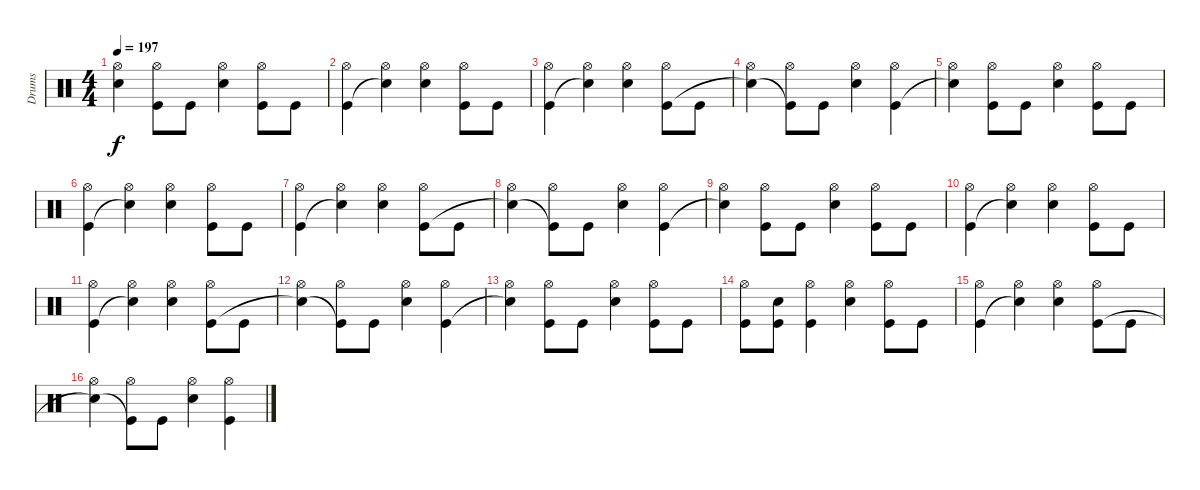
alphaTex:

\track ("Drums" "Drums") {instrument percussion}
\staff {score}
\articulation defaults
\ts (4 4)
\tempo 197
\clef neutral
\ks c
("Hi-Hat (open)" "Snare (hit)"{t}).4{dy f} ("Hi-Hat (open)" "Kick (hit)").8 "Kick (hit)".8 ("Hi-Hat (open)" "Snare (hit) 2").4 ("Hi-Hat (open)" "Kick (hit)").8 "Kick (hit)".8 |
("Hi-Hat (open)" "Kick (hit)").4 ("Hi-Hat (open)" "Snare (hit)"{t}).4 ("Hi-Hat (open)" "Snare (hit) 2").4 ("Hi-Hat (open)" "Kick (hit)").8 "Kick (hit)".8 |
("Hi-Hat (open)" "Kick (hit)").4 ("Hi-Hat (open)" "Snare (hit)"{t}).4 ("Hi-Hat (open)" "Snare (hit) 2").4 ("Hi-Hat (open)" "Kick (hit)").8 "Kick (hit)".8 |
("Hi-Hat (open)" "Snare (hit)"{t}).4 ("Hi-Hat (open)" "Kick (hit)"{t}).8 "Kick (hit)".8 ("Hi-Hat (open)" "Snare (hit) 2").4 ("Hi-Hat (open)" "Kick (hit)").4 |
("Hi-Hat (open)" "Snare (hit)"{t}).4 ("Hi-Hat (open)" "Kick (hit)").8 "Kick (hit)".8 ("Hi-Hat (open)" "Snare (hit) 2").4 ("Hi-Hat (open)" "Kick (hit)").8 "Kick (hit)".8 |
("Hi-Hat (open)" "Kick (hit)").4 ("Hi-Hat (open)" "Snare (hit)"{t}).4 ("Hi-Hat (open)" "Snare (hit) 2").4 ("Hi-Hat (open)" "Kick (hit)").8 "Kick (hit)".8 |
("Hi-Hat (open)" "Kick (hit)").4 ("Hi-Hat (open)" "Snare (hit)"{t}).4 ("Hi-Hat (open)" "Snare (hit) 2").4 ("Hi-Hat (open)" "Kick (hit)").8 "Kick (hit)".8 |
("Hi-Hat (open)" "Snare (hit)"{t}).4 ("Hi-Hat (open)" "Kick (hit)"{t}).8 "Kick (hit)".8 ("Hi-Hat (open)" "Snare (hit) 2").4 ("Hi-Hat (open)" "Kick (hit)").4 |
("Hi-Hat (open)" "Snare (hit)"{t}).4 ("Hi-Hat (open)" "Kick (hit)").8 "Kick (hit)".8 ("Hi-Hat (open)" "Snare (hit) 2").4 ("Hi-Hat (open)" "Kick (hit)").8 "Kick (hit)".8 |
("Hi-Hat (open)" "Kick (hit)").4 ("Hi-Hat (open)" "Snare (hit)"{t}).4 ("Hi-Hat (open)" "Snare (hit) 2").4 ("Hi-Hat (open)" "Kick (hit)").8 "Kick (hit)".8 |
("Hi-Hat (open)" "Kick (hit)").4 ("Hi-Hat (open)" "Snare (hit)"{t}).4 ("Hi-Hat (open)" "Snare (hit) 2").4 ("Hi-Hat (open)" "Kick (hit)").8 "Kick (hit)".8 |
("Hi-Hat (open)" "Snare (hit)"{t}).4 ("Hi-Hat (open)" "Kick (hit)"{t}).8 "Kick (hit)".8 ("Hi-Hat (open)" "Snare (hit) 2").4 ("Hi-Hat (open)" "Kick (hit)").4 |
("Hi-Hat (open)" "Snare (hit)"{t}).4 ("Hi-Hat (open)" "Kick (hit)").8 "Kick (hit)".8 ("Hi-Hat (open)" "Snare (hit) 2").4 ("Hi-Hat (open)" "Kick (hit)").8 "Kick (hit)".8 |
("Hi-Hat (open)" "Kick (hit)").8 ("Snare (hit) 2" "Kick (hit)").8 ("Hi-Hat (open)" "Kick (hit)").4 ("Hi-Hat (open)" "Snare (hit) 2").4 ("Hi-Hat (open)" "Kick (hit)").8 "Kick (hit)".8 |
("Hi-Hat (open)" "Kick (hit)").4 ("Hi-Hat (open)" "Snare (hit)"{t}).4 ("Hi-Hat (open)" "Snare (hit) 2").4 ("Hi-Hat (open)" "Kick (hit)").8 "Kick (hit)".8 |
("Hi-Hat (open)" "Snare (hit)"{t}).4 ("Hi-Hat (open)" "Kick (hit)"{t}).8 "Kick (hit)".8 ("Hi-Hat (open)" "Snare (hit) 2").4 ("Hi-Hat (open)" "Kick (hit)").4
